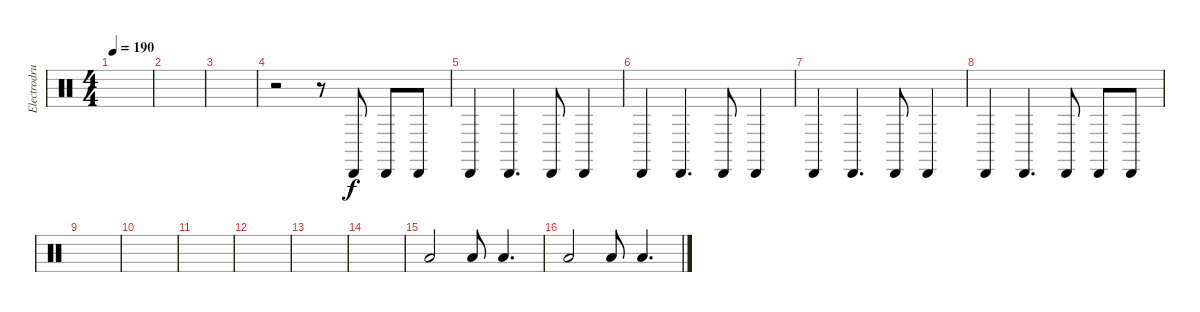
\track ("Electrodrums3" "Electrodru") {instrument percussion}
\staff {score}
\articulation defaults
\ts (4 4)
\tempo 190
\clef neutral
\ks c
|
|
|
r.2 r.8 "Cabasa (hit)".8 "Cabasa (hit)".8 "Cabasa (hit)".8 |
"Cabasa (hit)".4 "Cabasa (hit)".4{d} "Cabasa (hit)".8 "Cabasa (hit)".4 |
"Cabasa (hit)".4 "Cabasa (hit)".4{d} "Cabasa (hit)".8 "Cabasa (hit)".4 |
"Cabasa (hit)".4 "Cabasa (hit)".4{d} "Cabasa (hit)".8 "Cabasa (hit)".4 |
"Cabasa (hit)".4 "Cabasa (hit)".4{d} "Cabasa (hit)".8 "Cabasa (hit)".8 "Cabasa (hit)".8 |
|
|
|
|
|
|
"Low Floor Tom (hit)".2 "Low Floor Tom (hit)".8 "Low Floor Tom (hit)".4{d} |
"Low Floor Tom (hit)".2 "Low Floor Tom (hit)".8 "Low Floor Tom (hit)".4{d}
